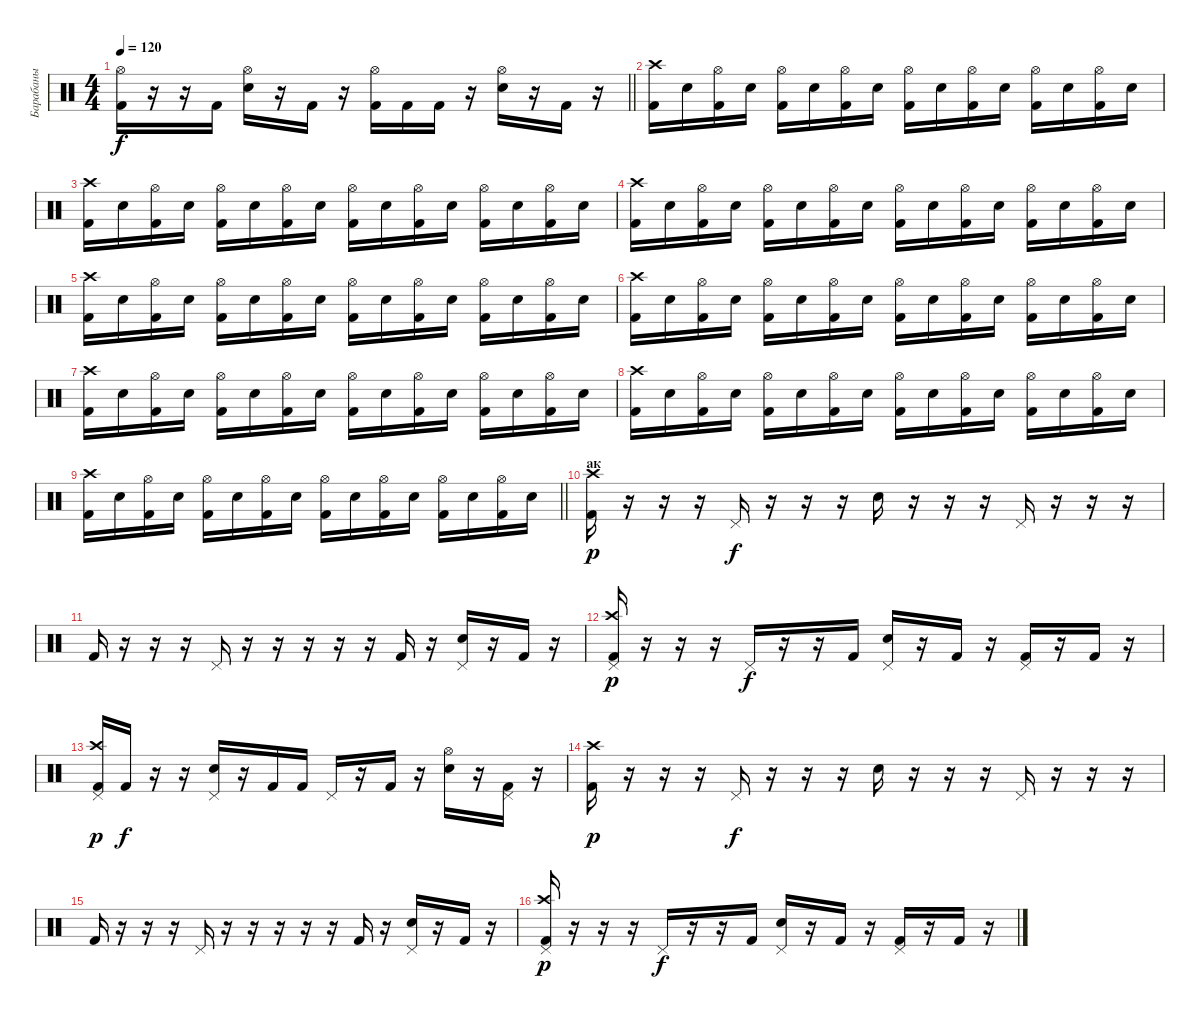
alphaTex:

\track ("Барабаны" "Барабаны") {instrument percussion}
\staff {score}
\articulation defaults
\ts (4 4)
\tempo 120
\clef neutral
\barLineRight lightlight
\ks c
("Hi-Hat (open)" "Kick (hit) 2").16{dy f} r.16 r.16 "Kick (hit) 2".16 ("Hi-Hat (open)" "Electric Snare (hit)").16 r.16 "Kick (hit) 2".16 r.16 ("Hi-Hat (open)" "Kick (hit) 2").16 "Kick (hit) 2".16 "Kick (hit) 2".16 r.16 ("Hi-Hat (open)" "Electric Snare (hit)").16 r.16 "Kick (hit) 2".16 r.16 |
\section ("" "")
("Crash high (hit)" "Kick (hit) 2").16 "Electric Snare (hit)".16 ("Hi-Hat (open)" "Kick (hit) 2").16 "Electric Snare (hit)".16 ("Hi-Hat (open)" "Kick (hit) 2").16 "Electric Snare (hit)".16 ("Hi-Hat (open)" "Kick (hit) 2").16 "Electric Snare (hit)".16 ("Hi-Hat (open)" "Kick (hit) 2").16 "Electric Snare (hit)".16 ("Hi-Hat (open)" "Kick (hit) 2").16 "Electric Snare (hit)".16 ("Hi-Hat (open)" "Kick (hit) 2").16 "Electric Snare (hit)".16 ("Hi-Hat (open)" "Kick (hit) 2").16 "Electric Snare (hit)".16 |
("Crash high (hit)" "Kick (hit) 2").16 "Electric Snare (hit)".16 ("Hi-Hat (open)" "Kick (hit) 2").16 "Electric Snare (hit)".16 ("Hi-Hat (open)" "Kick (hit) 2").16 "Electric Snare (hit)".16 ("Hi-Hat (open)" "Kick (hit) 2").16 "Electric Snare (hit)".16 ("Hi-Hat (open)" "Kick (hit) 2").16 "Electric Snare (hit)".16 ("Hi-Hat (open)" "Kick (hit) 2").16 "Electric Snare (hit)".16 ("Hi-Hat (open)" "Kick (hit) 2").16 "Electric Snare (hit)".16 ("Hi-Hat (open)" "Kick (hit) 2").16 "Electric Snare (hit)".16 |
("Crash high (hit)" "Kick (hit) 2").16 "Electric Snare (hit)".16 ("Hi-Hat (open)" "Kick (hit) 2").16 "Electric Snare (hit)".16 ("Hi-Hat (open)" "Kick (hit) 2").16 "Electric Snare (hit)".16 ("Hi-Hat (open)" "Kick (hit) 2").16 "Electric Snare (hit)".16 ("Hi-Hat (open)" "Kick (hit) 2").16 "Electric Snare (hit)".16 ("Hi-Hat (open)" "Kick (hit) 2").16 "Electric Snare (hit)".16 ("Hi-Hat (open)" "Kick (hit) 2").16 "Electric Snare (hit)".16 ("Hi-Hat (open)" "Kick (hit) 2").16 "Electric Snare (hit)".16 |
("Crash high (hit)" "Kick (hit) 2").16 "Electric Snare (hit)".16 ("Hi-Hat (open)" "Kick (hit) 2").16 "Electric Snare (hit)".16 ("Hi-Hat (open)" "Kick (hit) 2").16 "Electric Snare (hit)".16 ("Hi-Hat (open)" "Kick (hit) 2").16 "Electric Snare (hit)".16 ("Hi-Hat (open)" "Kick (hit) 2").16 "Electric Snare (hit)".16 ("Hi-Hat (open)" "Kick (hit) 2").16 "Electric Snare (hit)".16 ("Hi-Hat (open)" "Kick (hit) 2").16 "Electric Snare (hit)".16 ("Hi-Hat (open)" "Kick (hit) 2").16 "Electric Snare (hit)".16 |
("Crash high (hit)" "Kick (hit) 2").16 "Electric Snare (hit)".16 ("Hi-Hat (open)" "Kick (hit) 2").16 "Electric Snare (hit)".16 ("Hi-Hat (open)" "Kick (hit) 2").16 "Electric Snare (hit)".16 ("Hi-Hat (open)" "Kick (hit) 2").16 "Electric Snare (hit)".16 ("Hi-Hat (open)" "Kick (hit) 2").16 "Electric Snare (hit)".16 ("Hi-Hat (open)" "Kick (hit) 2").16 "Electric Snare (hit)".16 ("Hi-Hat (open)" "Kick (hit) 2").16 "Electric Snare (hit)".16 ("Hi-Hat (open)" "Kick (hit) 2").16 "Electric Snare (hit)".16 |
("Crash high (hit)" "Kick (hit) 2").16 "Electric Snare (hit)".16 ("Hi-Hat (open)" "Kick (hit) 2").16 "Electric Snare (hit)".16 ("Hi-Hat (open)" "Kick (hit) 2").16 "Electric Snare (hit)".16 ("Hi-Hat (open)" "Kick (hit) 2").16 "Electric Snare (hit)".16 ("Hi-Hat (open)" "Kick (hit) 2").16 "Electric Snare (hit)".16 ("Hi-Hat (open)" "Kick (hit) 2").16 "Electric Snare (hit)".16 ("Hi-Hat (open)" "Kick (hit) 2").16 "Electric Snare (hit)".16 ("Hi-Hat (open)" "Kick (hit) 2").16 "Electric Snare (hit)".16 |
("Crash high (hit)" "Kick (hit) 2").16 "Electric Snare (hit)".16 ("Hi-Hat (open)" "Kick (hit) 2").16 "Electric Snare (hit)".16 ("Hi-Hat (open)" "Kick (hit) 2").16 "Electric Snare (hit)".16 ("Hi-Hat (open)" "Kick (hit) 2").16 "Electric Snare (hit)".16 ("Hi-Hat (open)" "Kick (hit) 2").16 "Electric Snare (hit)".16 ("Hi-Hat (open)" "Kick (hit) 2").16 "Electric Snare (hit)".16 ("Hi-Hat (open)" "Kick (hit) 2").16 "Electric Snare (hit)".16 ("Hi-Hat (open)" "Kick (hit) 2").16 "Electric Snare (hit)".16 |
\barLineRight lightlight
("Crash high (hit)" "Kick (hit) 2").16 "Electric Snare (hit)".16 ("Hi-Hat (open)" "Kick (hit) 2").16 "Electric Snare (hit)".16 ("Hi-Hat (open)" "Kick (hit) 2").16 "Electric Snare (hit)".16 ("Hi-Hat (open)" "Kick (hit) 2").16 "Electric Snare (hit)".16 ("Hi-Hat (open)" "Kick (hit) 2").16 "Electric Snare (hit)".16 ("Hi-Hat (open)" "Kick (hit) 2").16 "Electric Snare (hit)".16 ("Hi-Hat (open)" "Kick (hit) 2").16 "Electric Snare (hit)".16 ("Hi-Hat (open)" "Kick (hit) 2").16 "Electric Snare (hit)".16 |
\section ("" "ак")
("Crash high (hit)" "Kick (hit) 2").16{dy p} r.16 r.16 r.16 "Pedal Hi-Hat (hit)".16{dy f} r.16 r.16 r.16 "Electric Snare (hit)".16 r.16 r.16 r.16 "Pedal Hi-Hat (hit)".16 r.16 r.16 r.16 |
"Kick (hit) 2".16 r.16 r.16 r.16 "Pedal Hi-Hat (hit)".16 r.16 r.16 r.16 r.16 r.16 "Kick (hit) 2".16 r.16 ("Pedal Hi-Hat (hit)" "Electric Snare (hit)").16 r.16 "Kick (hit) 2".16 r.16 |
("Crash high (hit)" "Pedal Hi-Hat (hit)" "Kick (hit) 2").16{dy p} r.16 r.16 r.16 "Pedal Hi-Hat (hit)".16{dy f} r.16 r.16 "Kick (hit) 2".16 ("Pedal Hi-Hat (hit)" "Electric Snare (hit)").16 r.16 "Kick (hit) 2".16 r.16 ("Pedal Hi-Hat (hit)" "Kick (hit) 2").16 r.16 "Kick (hit) 2".16 r.16 |
("Crash high (hit)" "Pedal Hi-Hat (hit)" "Kick (hit) 2").16{dy p} "Kick (hit) 2".16{dy f} r.16 r.16 ("Pedal Hi-Hat (hit)" "Electric Snare (hit)").16 r.16 "Kick (hit) 2".16 "Kick (hit) 2".16 "Pedal Hi-Hat (hit)".16 r.16 "Kick (hit) 2".16 r.16 ("Hi-Hat (open)" "Electric Snare (hit)").16 r.16 ("Pedal Hi-Hat (hit)" "Kick (hit) 2").16 r.16 |
("Crash high (hit)" "Kick (hit) 2").16{dy p} r.16 r.16 r.16 "Pedal Hi-Hat (hit)".16{dy f} r.16 r.16 r.16 "Electric Snare (hit)".16 r.16 r.16 r.16 "Pedal Hi-Hat (hit)".16 r.16 r.16 r.16 |
"Kick (hit) 2".16 r.16 r.16 r.16 "Pedal Hi-Hat (hit)".16 r.16 r.16 r.16 r.16 r.16 "Kick (hit) 2".16 r.16 ("Pedal Hi-Hat (hit)" "Electric Snare (hit)").16 r.16 "Kick (hit) 2".16 r.16 |
("Crash high (hit)" "Pedal Hi-Hat (hit)" "Kick (hit) 2").16{dy p} r.16 r.16 r.16 "Pedal Hi-Hat (hit)".16{dy f} r.16 r.16 "Kick (hit) 2".16 ("Pedal Hi-Hat (hit)" "Electric Snare (hit)").16 r.16 "Kick (hit) 2".16 r.16 ("Pedal Hi-Hat (hit)" "Kick (hit) 2").16 r.16 "Kick (hit) 2".16 r.16
